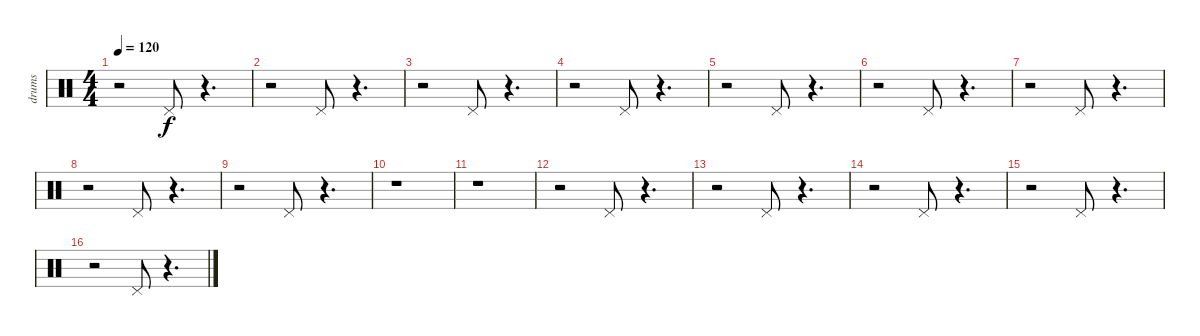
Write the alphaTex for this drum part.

\track ("drums" "drums") {instrument percussion}
\staff {score}
\articulation defaults
\ts (4 4)
\tempo 120
\clef neutral
\ks c
r.2{dy f} "Pedal Hi-Hat (hit)".8 r.4{d} |
r.2 "Pedal Hi-Hat (hit)".8 r.4{d} |
r.2 "Pedal Hi-Hat (hit)".8 r.4{d} |
r.2 "Pedal Hi-Hat (hit)".8 r.4{d} |
r.2 "Pedal Hi-Hat (hit)".8 r.4{d} |
r.2 "Pedal Hi-Hat (hit)".8 r.4{d} |
r.2 "Pedal Hi-Hat (hit)".8 r.4{d} |
r.2 "Pedal Hi-Hat (hit)".8 r.4{d} |
r.2 "Pedal Hi-Hat (hit)".8 r.4{d} |
r.1 |
r.1 |
r.2 "Pedal Hi-Hat (hit)".8 r.4{d} |
r.2 "Pedal Hi-Hat (hit)".8 r.4{d} |
r.2 "Pedal Hi-Hat (hit)".8 r.4{d} |
r.2 "Pedal Hi-Hat (hit)".8 r.4{d} |
r.2 "Pedal Hi-Hat (hit)".8 r.4{d}
